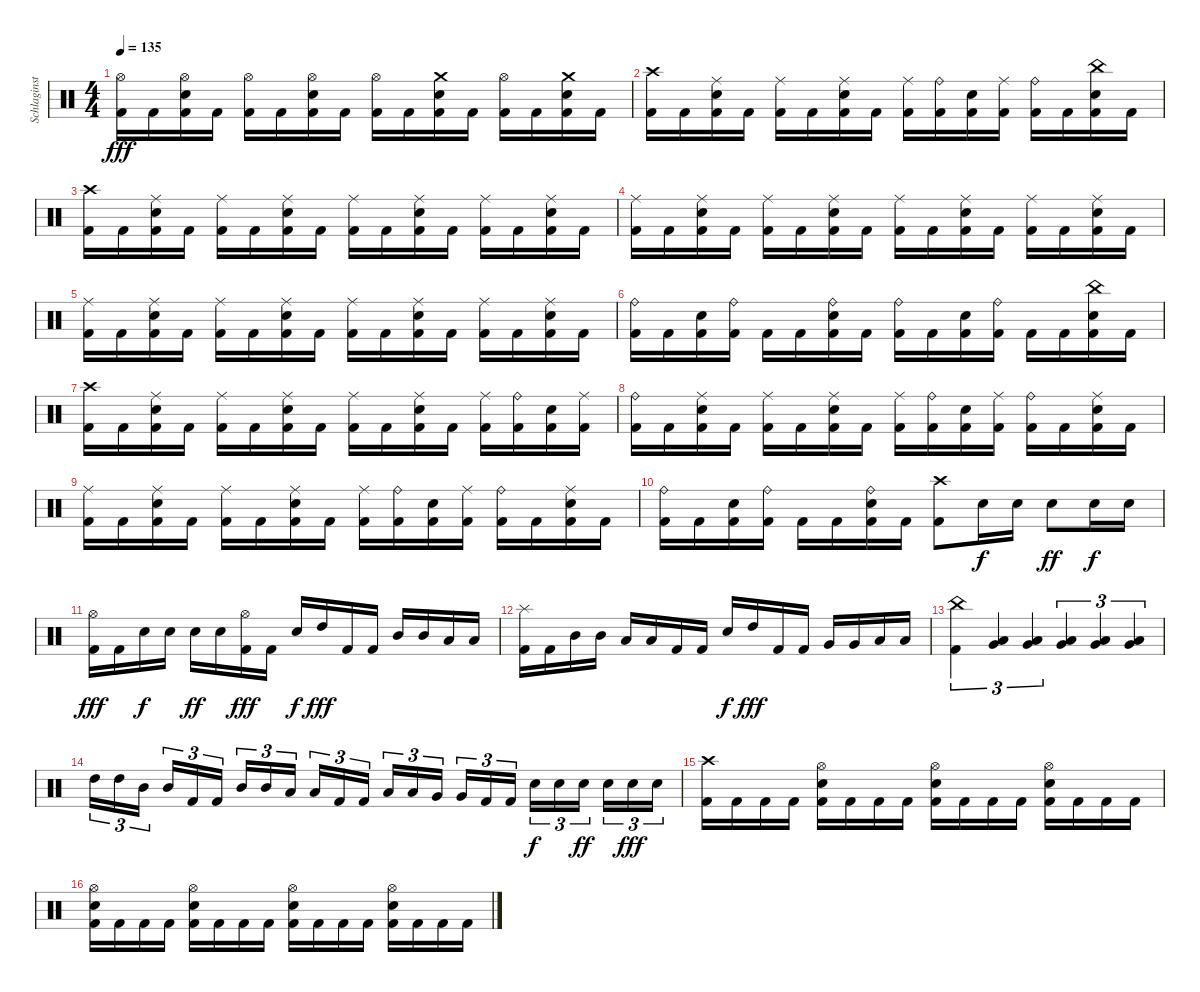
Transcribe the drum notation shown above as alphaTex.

\track ("Schlaginstrumente - Auswahl" "Schlaginst") {instrument percussion}
\staff {score}
\articulation defaults
\ts (4 4)
\tempo 135
\clef neutral
\ks c
("Hi-Hat (open)" "Kick (hit) 2").16{dy fff} "Kick (hit) 2".16 ("Hi-Hat (open)" "Snare (hit) 2" "Kick (hit) 2").16 "Kick (hit) 2".16 ("Hi-Hat (open)" "Kick (hit) 2").16 "Kick (hit) 2".16 ("Hi-Hat (open)" "Snare (hit) 2" "Kick (hit) 2").16 "Kick (hit) 2".16 ("Hi-Hat (open)" "Kick (hit) 2").16 "Kick (hit) 2".16 ("Crash medium (hit)" "Snare (hit) 2" "Kick (hit) 2").16 "Kick (hit) 2".16 ("Hi-Hat (open)" "Kick (hit) 2").16 "Kick (hit) 2".16 ("Crash medium (hit)" "Snare (hit) 2" "Kick (hit) 2").16 "Kick (hit) 2".16 |
("Crash high (hit)" "Kick (hit) 2").16 "Kick (hit) 2".16 ("Ride (middle)" "Snare (hit) 2" "Kick (hit) 2").16 "Kick (hit) 2".16 ("Ride (middle)" "Kick (hit) 2").16 "Kick (hit) 2".16 ("Ride (middle)" "Snare (hit) 2" "Kick (hit) 2").16 "Kick (hit) 2".16 ("Ride (middle)" "Kick (hit) 2").16 ("Ride (bell)" "Kick (hit) 2").16 ("Snare (hit) 2" "Kick (hit) 2").16 ("Ride (middle)" "Kick (hit) 2").16 ("Ride (bell)" "Kick (hit) 2").16 "Kick (hit) 2".16 ("China (hit)" "Snare (hit) 2" "Kick (hit) 2").16 "Kick (hit) 2".16 |
("Crash high (hit)" "Kick (hit) 2").16 "Kick (hit) 2".16 ("Ride (middle)" "Snare (hit) 2" "Kick (hit) 2").16 "Kick (hit) 2".16 ("Ride (middle)" "Kick (hit) 2").16 "Kick (hit) 2".16 ("Ride (middle)" "Snare (hit) 2" "Kick (hit) 2").16 "Kick (hit) 2".16 ("Ride (middle)" "Kick (hit) 2").16 "Kick (hit) 2".16 ("Ride (middle)" "Snare (hit) 2" "Kick (hit) 2").16 "Kick (hit) 2".16 ("Ride (middle)" "Kick (hit) 2").16 "Kick (hit) 2".16 ("Ride (middle)" "Snare (hit) 2" "Kick (hit) 2").16 "Kick (hit) 2".16 |
("Ride (middle)" "Kick (hit) 2").16 "Kick (hit) 2".16 ("Ride (middle)" "Snare (hit) 2" "Kick (hit) 2").16 "Kick (hit) 2".16 ("Ride (middle)" "Kick (hit) 2").16 "Kick (hit) 2".16 ("Ride (middle)" "Snare (hit) 2" "Kick (hit) 2").16 "Kick (hit) 2".16 ("Ride (middle)" "Kick (hit) 2").16 "Kick (hit) 2".16 ("Ride (middle)" "Snare (hit) 2" "Kick (hit) 2").16 "Kick (hit) 2".16 ("Ride (middle)" "Kick (hit) 2").16 "Kick (hit) 2".16 ("Ride (middle)" "Snare (hit) 2" "Kick (hit) 2").16 "Kick (hit) 2".16 |
("Ride (middle)" "Kick (hit) 2").16 "Kick (hit) 2".16 ("Ride (middle)" "Snare (hit) 2" "Kick (hit) 2").16 "Kick (hit) 2".16 ("Ride (middle)" "Kick (hit) 2").16 "Kick (hit) 2".16 ("Ride (middle)" "Snare (hit) 2" "Kick (hit) 2").16 "Kick (hit) 2".16 ("Ride (middle)" "Kick (hit) 2").16 "Kick (hit) 2".16 ("Ride (middle)" "Snare (hit) 2" "Kick (hit) 2").16 "Kick (hit) 2".16 ("Ride (middle)" "Kick (hit) 2").16 "Kick (hit) 2".16 ("Ride (middle)" "Snare (hit) 2" "Kick (hit) 2").16 "Kick (hit) 2".16 |
("Ride (bell)" "Kick (hit) 2").16 "Kick (hit) 2".16 ("Snare (hit) 2" "Kick (hit) 2").16 ("Ride (bell)" "Kick (hit) 2").16 "Kick (hit) 2".16 "Kick (hit) 2".16 ("Ride (bell)" "Snare (hit) 2" "Kick (hit) 2").16 "Kick (hit) 2".16 ("Ride (bell)" "Kick (hit) 2").16 "Kick (hit) 2".16 ("Snare (hit) 2" "Kick (hit) 2").16 ("Ride (bell)" "Kick (hit) 2").16 "Kick (hit) 2".16 "Kick (hit) 2".16 ("China (hit)" "Snare (hit) 2" "Kick (hit) 2").16 "Kick (hit) 2".16 |
("Crash high (hit)" "Kick (hit) 2").16 "Kick (hit) 2".16 ("Ride (middle)" "Snare (hit) 2" "Kick (hit) 2").16 "Kick (hit) 2".16 ("Ride (middle)" "Kick (hit) 2").16 "Kick (hit) 2".16 ("Ride (middle)" "Snare (hit) 2" "Kick (hit) 2").16 "Kick (hit) 2".16 ("Ride (middle)" "Kick (hit) 2").16 "Kick (hit) 2".16 ("Ride (middle)" "Snare (hit) 2" "Kick (hit) 2").16 "Kick (hit) 2".16 ("Ride (middle)" "Kick (hit) 2").16 ("Ride (bell)" "Kick (hit) 2").16 ("Snare (hit) 2" "Kick (hit) 2").16 ("Ride (middle)" "Kick (hit) 2").16 |
("Ride (bell)" "Kick (hit) 2").16 "Kick (hit) 2".16 ("Ride (middle)" "Snare (hit) 2" "Kick (hit) 2").16 "Kick (hit) 2".16 ("Ride (middle)" "Kick (hit) 2").16 "Kick (hit) 2".16 ("Ride (middle)" "Snare (hit) 2" "Kick (hit) 2").16 "Kick (hit) 2".16 ("Ride (middle)" "Kick (hit) 2").16 ("Ride (bell)" "Kick (hit) 2").16 ("Snare (hit) 2" "Kick (hit) 2").16 ("Ride (middle)" "Kick (hit) 2").16 ("Ride (bell)" "Kick (hit) 2").16 "Kick (hit) 2".16 ("Ride (middle)" "Snare (hit) 2" "Kick (hit) 2").16 "Kick (hit) 2".16 |
("Ride (middle)" "Kick (hit) 2").16 "Kick (hit) 2".16 ("Ride (middle)" "Snare (hit) 2" "Kick (hit) 2").16 "Kick (hit) 2".16 ("Ride (middle)" "Kick (hit) 2").16 "Kick (hit) 2".16 ("Ride (middle)" "Snare (hit) 2" "Kick (hit) 2").16 "Kick (hit) 2".16 ("Ride (middle)" "Kick (hit) 2").16 ("Ride (bell)" "Kick (hit) 2").16 ("Snare (hit) 2" "Kick (hit) 2").16 ("Ride (middle)" "Kick (hit) 2").16 ("Ride (bell)" "Kick (hit) 2").16 "Kick (hit) 2".16 ("Ride (middle)" "Snare (hit) 2" "Kick (hit) 2").16 "Kick (hit) 2".16 |
("Ride (bell)" "Kick (hit) 2").16 "Kick (hit) 2".16 ("Snare (hit) 2" "Kick (hit) 2").16 ("Ride (bell)" "Kick (hit) 2").16 "Kick (hit) 2".16 "Kick (hit) 2".16 ("Ride (bell)" "Snare (hit) 2" "Kick (hit) 2").16 "Kick (hit) 2".16 ("Crash high (hit)" "Kick (hit) 2").8 "Snare (hit) 2".16{dy f} "Snare (hit) 2".16 "Snare (hit) 2".8{dy ff} "Snare (hit) 2".16{dy f} "Snare (hit) 2".16 |
("Hi-Hat (open)" "Kick (hit) 2").16{dy fff} "Kick (hit) 2".16 "Snare (hit) 2".16{dy f} "Snare (hit) 2".16 "Snare (hit) 2".16{dy ff} "Snare (hit) 2".16 ("Hi-Hat (open)" "Kick (hit) 2").16{dy fff} "Kick (hit) 2".16 "Snare (hit) 2".16{dy f} "High Tom (hit)".16{dy fff} "Kick (hit) 2".16 "Kick (hit) 2".16 "Mid Tom (hit)".16 "Mid Tom (hit)".16 "Low Tom (hit)".16 "Low Tom (hit)".16 |
("Splash (hit)" "Kick (hit) 2").16 "Kick (hit) 2".16 "Mid Tom (hit)".16 "Mid Tom (hit)".16 "Low Tom (hit)".16 "Low Tom (hit)".16 "Kick (hit) 2".16 "Kick (hit) 2".16 "Snare (hit) 2".16{dy f} "High Tom (hit)".16{dy fff} "Kick (hit) 2".16 "Kick (hit) 2".16 "Very Low Tom (hit)".16 "Very Low Tom (hit)".16 "Low Floor Tom (hit)".16 "Low Floor Tom (hit)".16 |
("China (hit)" "Kick (hit) 2").4{tu (3 2)} ("Very Low Tom (hit)" "Low Floor Tom (hit)").4{tu (3 2)} ("Very Low Tom (hit)" "Low Floor Tom (hit)").4{tu (3 2)} ("Very Low Tom (hit)" "Low Floor Tom (hit)").4{tu (3 2)} ("Very Low Tom (hit)" "Low Floor Tom (hit)").4{tu (3 2)} ("Very Low Tom (hit)" "Low Floor Tom (hit)").4{tu (3 2)} |
"High Tom (hit)".16{tu (3 2)} "High Tom (hit)".16{tu (3 2)} "Mid Tom (hit)".16{tu (3 2) beam splitsecondary} "Mid Tom (hit)".16{tu (3 2)} "Kick (hit) 2".16{tu (3 2)} "Kick (hit) 2".16{tu (3 2)} "Mid Tom (hit)".16{tu (3 2)} "Mid Tom (hit)".16{tu (3 2)} "Low Tom (hit)".16{tu (3 2) beam splitsecondary} "Low Tom (hit)".16{tu (3 2)} "Kick (hit) 2".16{tu (3 2)} "Kick (hit) 2".16{tu (3 2)} "Low Tom (hit)".16{tu (3 2)} "Low Tom (hit)".16{tu (3 2)} "Very Low Tom (hit)".16{tu (3 2) beam splitsecondary} "Very Low Tom (hit)".16{tu (3 2)} "Kick (hit) 2".16{tu (3 2)} "Kick (hit) 2".16{tu (3 2)} "Snare (hit) 2".16{tu (3 2) dy f} "Snare (hit) 2".16{tu (3 2)} "Snare (hit) 2".16{tu (3 2) dy ff beam splitsecondary} "Snare (hit) 2".16{tu (3 2)} "Snare (hit) 2".16{tu (3 2) dy fff} "Snare (hit) 2".16{tu (3 2)} |
("Crash high (hit)" "Kick (hit) 2").16 "Kick (hit) 2".16 "Kick (hit) 2".16 "Kick (hit) 2".16 ("Hi-Hat (open)" "Snare (hit) 2" "Kick (hit) 2").16 "Kick (hit) 2".16 "Kick (hit) 2".16 "Kick (hit) 2".16 ("Hi-Hat (open)" "Snare (hit) 2" "Kick (hit) 2").16 "Kick (hit) 2".16 "Kick (hit) 2".16 "Kick (hit) 2".16 ("Hi-Hat (open)" "Snare (hit) 2" "Kick (hit) 2").16 "Kick (hit) 2".16 "Kick (hit) 2".16 "Kick (hit) 2".16 |
("Hi-Hat (open)" "Snare (hit) 2" "Kick (hit) 2").16 "Kick (hit) 2".16 "Kick (hit) 2".16 "Kick (hit) 2".16 ("Hi-Hat (open)" "Snare (hit) 2" "Kick (hit) 2").16 "Kick (hit) 2".16 "Kick (hit) 2".16 "Kick (hit) 2".16 ("Hi-Hat (open)" "Snare (hit) 2" "Kick (hit) 2").16 "Kick (hit) 2".16 "Kick (hit) 2".16 "Kick (hit) 2".16 ("Hi-Hat (open)" "Snare (hit) 2" "Kick (hit) 2").16 "Kick (hit) 2".16 "Kick (hit) 2".16 "Kick (hit) 2".16
